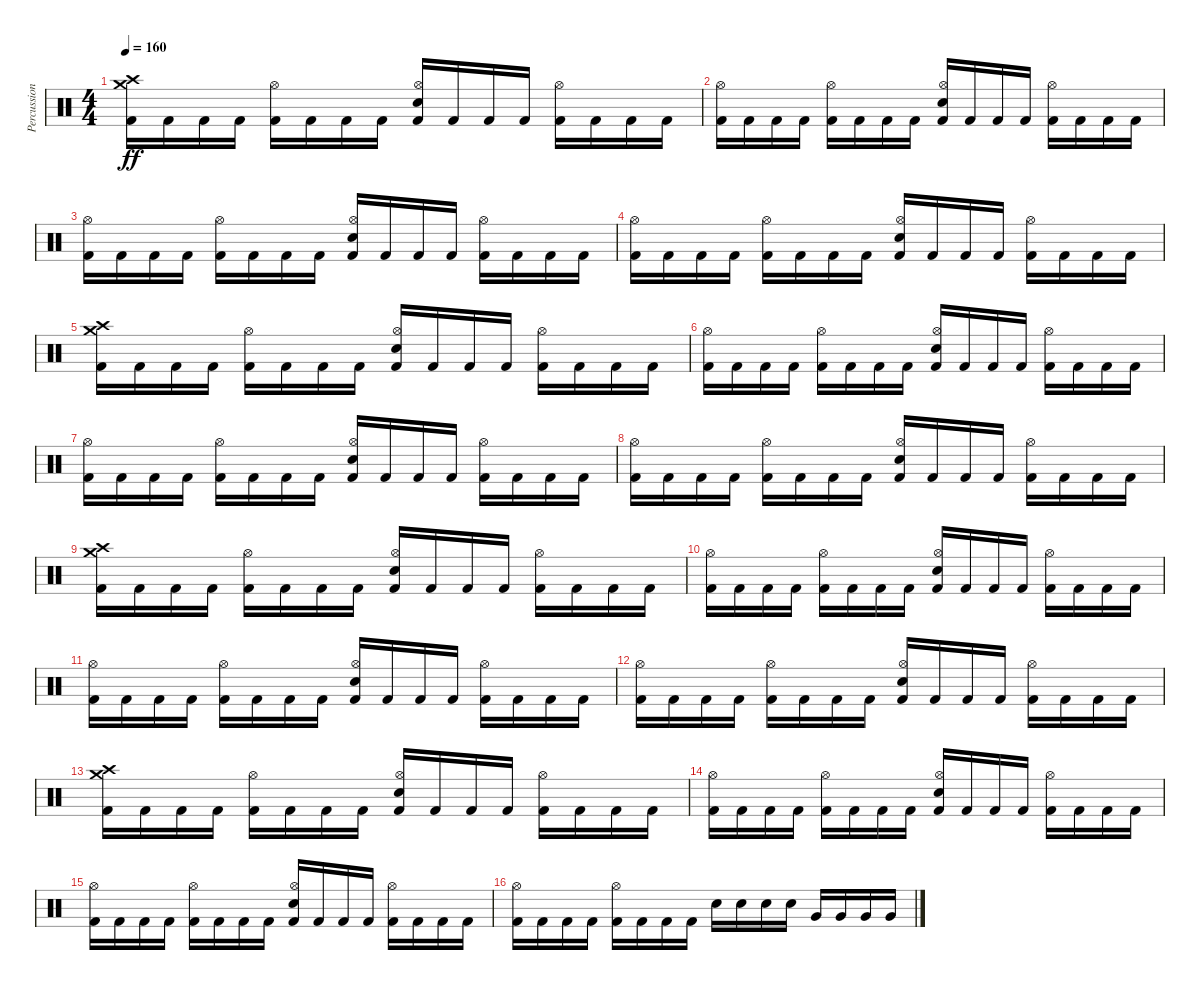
\track ("Percussion" "Percussion") {instrument percussion}
\staff {score}
\articulation defaults
\ts (4 4)
\tempo 160
\clef neutral
\ks c
("Kick (hit) 2" "Crash medium (hit)" "Crash high (hit)").16{dy ff} "Kick (hit) 2".16 "Kick (hit) 2".16 "Kick (hit) 2".16 ("Kick (hit) 2" "Hi-Hat (open)").16 "Kick (hit) 2".16 "Kick (hit) 2".16 "Kick (hit) 2".16 ("Kick (hit) 2" "Hi-Hat (open)" "Electric Snare (hit)").16 "Kick (hit) 2".16 "Kick (hit) 2".16 "Kick (hit) 2".16 ("Kick (hit) 2" "Hi-Hat (open)").16 "Kick (hit) 2".16 "Kick (hit) 2".16 "Kick (hit) 2".16 |
("Kick (hit) 2" "Hi-Hat (open)").16 "Kick (hit) 2".16 "Kick (hit) 2".16 "Kick (hit) 2".16 ("Kick (hit) 2" "Hi-Hat (open)").16 "Kick (hit) 2".16 "Kick (hit) 2".16 "Kick (hit) 2".16 ("Kick (hit) 2" "Hi-Hat (open)" "Electric Snare (hit)").16 "Kick (hit) 2".16 "Kick (hit) 2".16 "Kick (hit) 2".16 ("Kick (hit) 2" "Hi-Hat (open)").16 "Kick (hit) 2".16 "Kick (hit) 2".16 "Kick (hit) 2".16 |
("Kick (hit) 2" "Hi-Hat (open)").16 "Kick (hit) 2".16 "Kick (hit) 2".16 "Kick (hit) 2".16 ("Kick (hit) 2" "Hi-Hat (open)").16 "Kick (hit) 2".16 "Kick (hit) 2".16 "Kick (hit) 2".16 ("Kick (hit) 2" "Hi-Hat (open)" "Electric Snare (hit)").16 "Kick (hit) 2".16 "Kick (hit) 2".16 "Kick (hit) 2".16 ("Kick (hit) 2" "Hi-Hat (open)").16 "Kick (hit) 2".16 "Kick (hit) 2".16 "Kick (hit) 2".16 |
("Kick (hit) 2" "Hi-Hat (open)").16 "Kick (hit) 2".16 "Kick (hit) 2".16 "Kick (hit) 2".16 ("Kick (hit) 2" "Hi-Hat (open)").16 "Kick (hit) 2".16 "Kick (hit) 2".16 "Kick (hit) 2".16 ("Kick (hit) 2" "Hi-Hat (open)" "Electric Snare (hit)").16 "Kick (hit) 2".16 "Kick (hit) 2".16 "Kick (hit) 2".16 ("Kick (hit) 2" "Hi-Hat (open)").16 "Kick (hit) 2".16 "Kick (hit) 2".16 "Kick (hit) 2".16 |
("Kick (hit) 2" "Crash medium (hit)" "Crash high (hit)").16 "Kick (hit) 2".16 "Kick (hit) 2".16 "Kick (hit) 2".16 ("Kick (hit) 2" "Hi-Hat (open)").16 "Kick (hit) 2".16 "Kick (hit) 2".16 "Kick (hit) 2".16 ("Kick (hit) 2" "Hi-Hat (open)" "Electric Snare (hit)").16 "Kick (hit) 2".16 "Kick (hit) 2".16 "Kick (hit) 2".16 ("Kick (hit) 2" "Hi-Hat (open)").16 "Kick (hit) 2".16 "Kick (hit) 2".16 "Kick (hit) 2".16 |
("Kick (hit) 2" "Hi-Hat (open)").16 "Kick (hit) 2".16 "Kick (hit) 2".16 "Kick (hit) 2".16 ("Kick (hit) 2" "Hi-Hat (open)").16 "Kick (hit) 2".16 "Kick (hit) 2".16 "Kick (hit) 2".16 ("Kick (hit) 2" "Hi-Hat (open)" "Electric Snare (hit)").16 "Kick (hit) 2".16 "Kick (hit) 2".16 "Kick (hit) 2".16 ("Kick (hit) 2" "Hi-Hat (open)").16 "Kick (hit) 2".16 "Kick (hit) 2".16 "Kick (hit) 2".16 |
("Kick (hit) 2" "Hi-Hat (open)").16 "Kick (hit) 2".16 "Kick (hit) 2".16 "Kick (hit) 2".16 ("Kick (hit) 2" "Hi-Hat (open)").16 "Kick (hit) 2".16 "Kick (hit) 2".16 "Kick (hit) 2".16 ("Kick (hit) 2" "Hi-Hat (open)" "Electric Snare (hit)").16 "Kick (hit) 2".16 "Kick (hit) 2".16 "Kick (hit) 2".16 ("Kick (hit) 2" "Hi-Hat (open)").16 "Kick (hit) 2".16 "Kick (hit) 2".16 "Kick (hit) 2".16 |
("Kick (hit) 2" "Hi-Hat (open)").16 "Kick (hit) 2".16 "Kick (hit) 2".16 "Kick (hit) 2".16 ("Kick (hit) 2" "Hi-Hat (open)").16 "Kick (hit) 2".16 "Kick (hit) 2".16 "Kick (hit) 2".16 ("Kick (hit) 2" "Hi-Hat (open)" "Electric Snare (hit)").16 "Kick (hit) 2".16 "Kick (hit) 2".16 "Kick (hit) 2".16 ("Kick (hit) 2" "Hi-Hat (open)").16 "Kick (hit) 2".16 "Kick (hit) 2".16 "Kick (hit) 2".16 |
("Kick (hit) 2" "Crash medium (hit)" "Crash high (hit)").16 "Kick (hit) 2".16 "Kick (hit) 2".16 "Kick (hit) 2".16 ("Kick (hit) 2" "Hi-Hat (open)").16 "Kick (hit) 2".16 "Kick (hit) 2".16 "Kick (hit) 2".16 ("Kick (hit) 2" "Hi-Hat (open)" "Electric Snare (hit)").16 "Kick (hit) 2".16 "Kick (hit) 2".16 "Kick (hit) 2".16 ("Kick (hit) 2" "Hi-Hat (open)").16 "Kick (hit) 2".16 "Kick (hit) 2".16 "Kick (hit) 2".16 |
("Kick (hit) 2" "Hi-Hat (open)").16 "Kick (hit) 2".16 "Kick (hit) 2".16 "Kick (hit) 2".16 ("Kick (hit) 2" "Hi-Hat (open)").16 "Kick (hit) 2".16 "Kick (hit) 2".16 "Kick (hit) 2".16 ("Kick (hit) 2" "Hi-Hat (open)" "Electric Snare (hit)").16 "Kick (hit) 2".16 "Kick (hit) 2".16 "Kick (hit) 2".16 ("Kick (hit) 2" "Hi-Hat (open)").16 "Kick (hit) 2".16 "Kick (hit) 2".16 "Kick (hit) 2".16 |
("Kick (hit) 2" "Hi-Hat (open)").16 "Kick (hit) 2".16 "Kick (hit) 2".16 "Kick (hit) 2".16 ("Kick (hit) 2" "Hi-Hat (open)").16 "Kick (hit) 2".16 "Kick (hit) 2".16 "Kick (hit) 2".16 ("Kick (hit) 2" "Hi-Hat (open)" "Electric Snare (hit)").16 "Kick (hit) 2".16 "Kick (hit) 2".16 "Kick (hit) 2".16 ("Kick (hit) 2" "Hi-Hat (open)").16 "Kick (hit) 2".16 "Kick (hit) 2".16 "Kick (hit) 2".16 |
("Kick (hit) 2" "Hi-Hat (open)").16 "Kick (hit) 2".16 "Kick (hit) 2".16 "Kick (hit) 2".16 ("Kick (hit) 2" "Hi-Hat (open)").16 "Kick (hit) 2".16 "Kick (hit) 2".16 "Kick (hit) 2".16 ("Kick (hit) 2" "Hi-Hat (open)" "Electric Snare (hit)").16 "Kick (hit) 2".16 "Kick (hit) 2".16 "Kick (hit) 2".16 ("Kick (hit) 2" "Hi-Hat (open)").16 "Kick (hit) 2".16 "Kick (hit) 2".16 "Kick (hit) 2".16 |
("Kick (hit) 2" "Crash medium (hit)" "Crash high (hit)").16 "Kick (hit) 2".16 "Kick (hit) 2".16 "Kick (hit) 2".16 ("Kick (hit) 2" "Hi-Hat (open)").16 "Kick (hit) 2".16 "Kick (hit) 2".16 "Kick (hit) 2".16 ("Kick (hit) 2" "Hi-Hat (open)" "Electric Snare (hit)").16 "Kick (hit) 2".16 "Kick (hit) 2".16 "Kick (hit) 2".16 ("Kick (hit) 2" "Hi-Hat (open)").16 "Kick (hit) 2".16 "Kick (hit) 2".16 "Kick (hit) 2".16 |
("Kick (hit) 2" "Hi-Hat (open)").16 "Kick (hit) 2".16 "Kick (hit) 2".16 "Kick (hit) 2".16 ("Kick (hit) 2" "Hi-Hat (open)").16 "Kick (hit) 2".16 "Kick (hit) 2".16 "Kick (hit) 2".16 ("Kick (hit) 2" "Hi-Hat (open)" "Electric Snare (hit)").16 "Kick (hit) 2".16 "Kick (hit) 2".16 "Kick (hit) 2".16 ("Kick (hit) 2" "Hi-Hat (open)").16 "Kick (hit) 2".16 "Kick (hit) 2".16 "Kick (hit) 2".16 |
("Kick (hit) 2" "Hi-Hat (open)").16 "Kick (hit) 2".16 "Kick (hit) 2".16 "Kick (hit) 2".16 ("Kick (hit) 2" "Hi-Hat (open)").16 "Kick (hit) 2".16 "Kick (hit) 2".16 "Kick (hit) 2".16 ("Kick (hit) 2" "Hi-Hat (open)" "Electric Snare (hit)").16 "Kick (hit) 2".16 "Kick (hit) 2".16 "Kick (hit) 2".16 ("Kick (hit) 2" "Hi-Hat (open)").16 "Kick (hit) 2".16 "Kick (hit) 2".16 "Kick (hit) 2".16 |
("Kick (hit) 2" "Hi-Hat (open)").16 "Kick (hit) 2".16 "Kick (hit) 2".16 "Kick (hit) 2".16 ("Kick (hit) 2" "Hi-Hat (open)").16 "Kick (hit) 2".16 "Kick (hit) 2".16 "Kick (hit) 2".16 "Electric Snare (hit)".16 "Electric Snare (hit)".16 "Electric Snare (hit)".16 "Electric Snare (hit)".16 "Very Low Tom (hit)".16 "Very Low Tom (hit)".16 "Very Low Tom (hit)".16 "Very Low Tom (hit)".16
